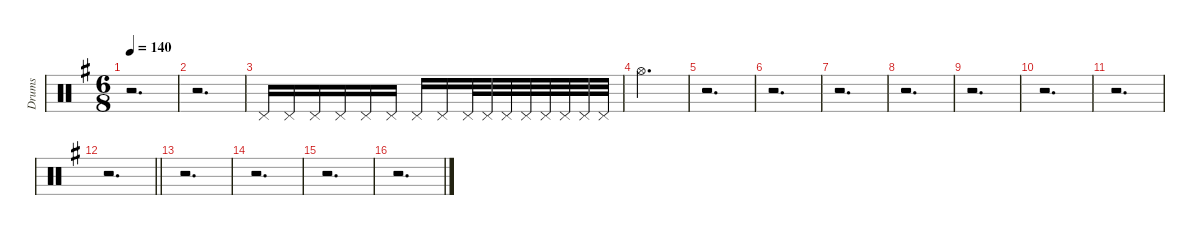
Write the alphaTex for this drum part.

\defaultSystemsLayout 8
\hideDynamics
\bracketExtendMode groupsimilarinstruments
\firstSystemTrackNameMode fullname
\otherSystemsTrackNameOrientation horizontal
\track ("Drums" "drm.") {defaultSystemsLayout 4 instrument percussion}
\staff {score}
\articulation defaults
\ts (6 8)
\tempo 140
\clef neutral
\ks g
r.2{d dy ppp beam Down} |
r.2{d beam Down} |
"Pedal Hi-Hat (hit)"{acc forcenatural}.16{beam Up} "Pedal Hi-Hat (hit)"{acc forcenatural}.16{beam Up} "Pedal Hi-Hat (hit)"{acc forcenatural}.16{dy pp beam Up} "Pedal Hi-Hat (hit)"{acc forcenatural}.16{beam Up} "Pedal Hi-Hat (hit)"{acc forcenatural}.16{dy p beam Up} "Pedal Hi-Hat (hit)"{acc forcenatural}.16{beam Up} "Pedal Hi-Hat (hit)"{acc forcenatural}.16{beam Up} "Pedal Hi-Hat (hit)"{acc forcenatural}.16{beam Up} "Pedal Hi-Hat (hit)"{acc forcenatural}.32{dy mp beam Up} "Pedal Hi-Hat (hit)"{acc forcenatural}.32{beam Up} "Pedal Hi-Hat (hit)"{acc forcenatural}.32{beam Up} "Pedal Hi-Hat (hit)"{acc forcenatural}.32{beam Up} "Pedal Hi-Hat (hit)"{acc forcenatural}.32{dy mf beam Up} "Pedal Hi-Hat (hit)"{acc forcenatural}.32{beam Up} "Pedal Hi-Hat (hit)"{acc forcenatural}.32{beam Up} "Pedal Hi-Hat (hit)"{acc forcenatural}.32{beam Up} |
"Hi-Hat (open)"{acc forcenatural}.2{d beam Down} |
r.2{d beam Down} |
r.2{d beam Down} |
r.2{d beam Down} |
r.2{d beam Down} |
r.2{d beam Down} |
r.2{d beam Down} |
r.2{d beam Down} |
\barLineRight lightlight
r.2{d beam Down} |
r.2{d beam Down} |
r.2{d beam Down} |
r.2{d beam Down} |
r.2{d beam Down}
